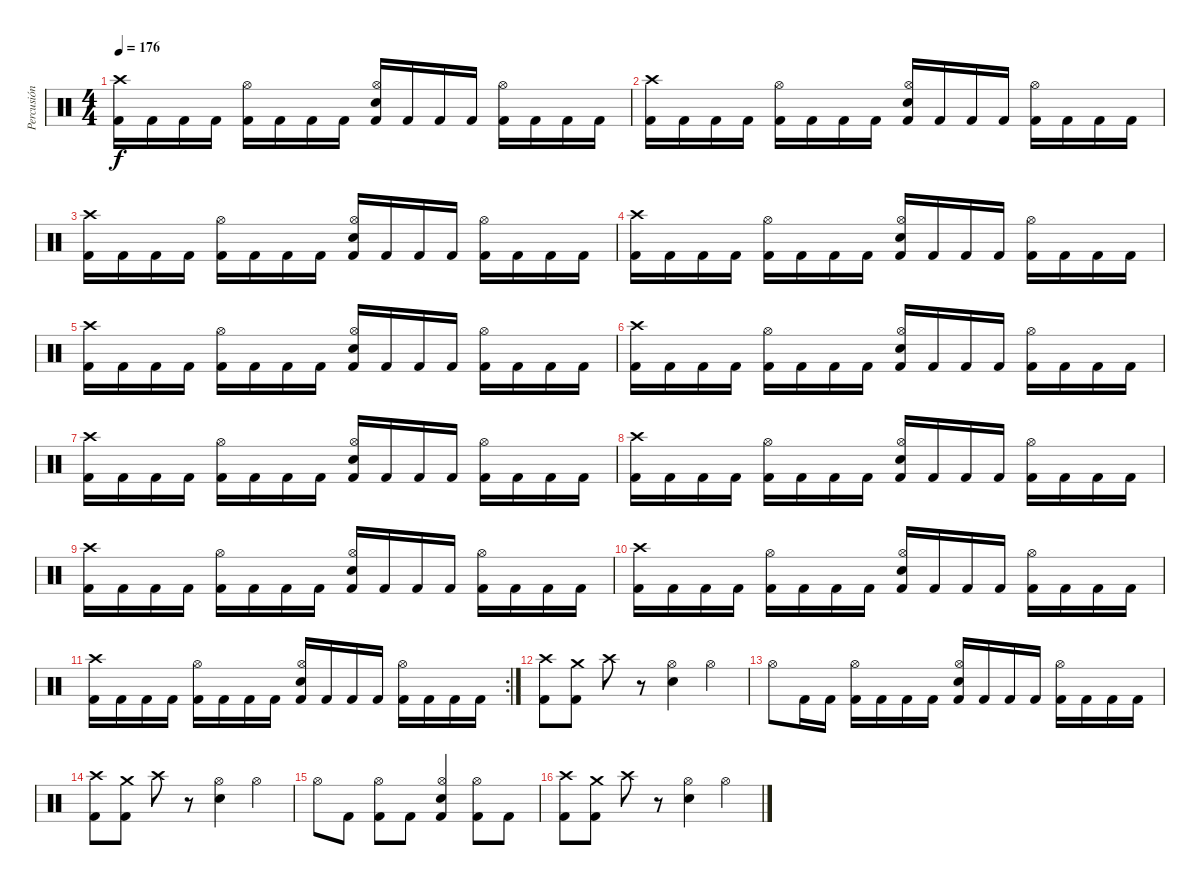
\track ("Percusión" "Percusión") {instrument percussion}
\staff {score}
\articulation defaults
\ts (4 4)
\tempo 176
\clef neutral
\ks c
("Crash high (hit)" "Kick (hit) 2").16{dy f} "Kick (hit) 2".16 "Kick (hit) 2".16 "Kick (hit) 2".16 ("Hi-Hat (open)" "Kick (hit) 2").16 "Kick (hit) 2".16 "Kick (hit) 2".16 "Kick (hit) 2".16 ("Hi-Hat (open)" "Electric Snare (hit)" "Kick (hit) 2").16 "Kick (hit) 2".16 "Kick (hit) 2".16 "Kick (hit) 2".16 ("Hi-Hat (open)" "Kick (hit) 2").16 "Kick (hit) 2".16 "Kick (hit) 2".16 "Kick (hit) 2".16 |
("Crash high (hit)" "Kick (hit) 2").16 "Kick (hit) 2".16 "Kick (hit) 2".16 "Kick (hit) 2".16 ("Hi-Hat (open)" "Kick (hit) 2").16 "Kick (hit) 2".16 "Kick (hit) 2".16 "Kick (hit) 2".16 ("Hi-Hat (open)" "Electric Snare (hit)" "Kick (hit) 2").16 "Kick (hit) 2".16 "Kick (hit) 2".16 "Kick (hit) 2".16 ("Hi-Hat (open)" "Kick (hit) 2").16 "Kick (hit) 2".16 "Kick (hit) 2".16 "Kick (hit) 2".16 |
("Crash high (hit)" "Kick (hit) 2").16 "Kick (hit) 2".16 "Kick (hit) 2".16 "Kick (hit) 2".16 ("Hi-Hat (open)" "Kick (hit) 2").16 "Kick (hit) 2".16 "Kick (hit) 2".16 "Kick (hit) 2".16 ("Hi-Hat (open)" "Electric Snare (hit)" "Kick (hit) 2").16 "Kick (hit) 2".16 "Kick (hit) 2".16 "Kick (hit) 2".16 ("Hi-Hat (open)" "Kick (hit) 2").16 "Kick (hit) 2".16 "Kick (hit) 2".16 "Kick (hit) 2".16 |
("Crash high (hit)" "Kick (hit) 2").16 "Kick (hit) 2".16 "Kick (hit) 2".16 "Kick (hit) 2".16 ("Hi-Hat (open)" "Kick (hit) 2").16 "Kick (hit) 2".16 "Kick (hit) 2".16 "Kick (hit) 2".16 ("Hi-Hat (open)" "Electric Snare (hit)" "Kick (hit) 2").16 "Kick (hit) 2".16 "Kick (hit) 2".16 "Kick (hit) 2".16 ("Hi-Hat (open)" "Kick (hit) 2").16 "Kick (hit) 2".16 "Kick (hit) 2".16 "Kick (hit) 2".16 |
("Crash high (hit)" "Kick (hit) 2").16 "Kick (hit) 2".16 "Kick (hit) 2".16 "Kick (hit) 2".16 ("Hi-Hat (open)" "Kick (hit) 2").16 "Kick (hit) 2".16 "Kick (hit) 2".16 "Kick (hit) 2".16 ("Hi-Hat (open)" "Electric Snare (hit)" "Kick (hit) 2").16 "Kick (hit) 2".16 "Kick (hit) 2".16 "Kick (hit) 2".16 ("Hi-Hat (open)" "Kick (hit) 2").16 "Kick (hit) 2".16 "Kick (hit) 2".16 "Kick (hit) 2".16 |
("Crash high (hit)" "Kick (hit) 2").16 "Kick (hit) 2".16 "Kick (hit) 2".16 "Kick (hit) 2".16 ("Hi-Hat (open)" "Kick (hit) 2").16 "Kick (hit) 2".16 "Kick (hit) 2".16 "Kick (hit) 2".16 ("Hi-Hat (open)" "Electric Snare (hit)" "Kick (hit) 2").16 "Kick (hit) 2".16 "Kick (hit) 2".16 "Kick (hit) 2".16 ("Hi-Hat (open)" "Kick (hit) 2").16 "Kick (hit) 2".16 "Kick (hit) 2".16 "Kick (hit) 2".16 |
("Crash high (hit)" "Kick (hit) 2").16 "Kick (hit) 2".16 "Kick (hit) 2".16 "Kick (hit) 2".16 ("Hi-Hat (open)" "Kick (hit) 2").16 "Kick (hit) 2".16 "Kick (hit) 2".16 "Kick (hit) 2".16 ("Hi-Hat (open)" "Electric Snare (hit)" "Kick (hit) 2").16 "Kick (hit) 2".16 "Kick (hit) 2".16 "Kick (hit) 2".16 ("Hi-Hat (open)" "Kick (hit) 2").16 "Kick (hit) 2".16 "Kick (hit) 2".16 "Kick (hit) 2".16 |
("Crash high (hit)" "Kick (hit) 2").16 "Kick (hit) 2".16 "Kick (hit) 2".16 "Kick (hit) 2".16 ("Hi-Hat (open)" "Kick (hit) 2").16 "Kick (hit) 2".16 "Kick (hit) 2".16 "Kick (hit) 2".16 ("Hi-Hat (open)" "Electric Snare (hit)" "Kick (hit) 2").16 "Kick (hit) 2".16 "Kick (hit) 2".16 "Kick (hit) 2".16 ("Hi-Hat (open)" "Kick (hit) 2").16 "Kick (hit) 2".16 "Kick (hit) 2".16 "Kick (hit) 2".16 |
("Crash high (hit)" "Kick (hit) 2").16 "Kick (hit) 2".16 "Kick (hit) 2".16 "Kick (hit) 2".16 ("Hi-Hat (open)" "Kick (hit) 2").16 "Kick (hit) 2".16 "Kick (hit) 2".16 "Kick (hit) 2".16 ("Hi-Hat (open)" "Electric Snare (hit)" "Kick (hit) 2").16 "Kick (hit) 2".16 "Kick (hit) 2".16 "Kick (hit) 2".16 ("Hi-Hat (open)" "Kick (hit) 2").16 "Kick (hit) 2".16 "Kick (hit) 2".16 "Kick (hit) 2".16 |
("Crash high (hit)" "Kick (hit) 2").16 "Kick (hit) 2".16 "Kick (hit) 2".16 "Kick (hit) 2".16 ("Hi-Hat (open)" "Kick (hit) 2").16 "Kick (hit) 2".16 "Kick (hit) 2".16 "Kick (hit) 2".16 ("Hi-Hat (open)" "Electric Snare (hit)" "Kick (hit) 2").16 "Kick (hit) 2".16 "Kick (hit) 2".16 "Kick (hit) 2".16 ("Hi-Hat (open)" "Kick (hit) 2").16 "Kick (hit) 2".16 "Kick (hit) 2".16 "Kick (hit) 2".16 |
\rc 2
("Crash high (hit)" "Kick (hit) 2").16 "Kick (hit) 2".16 "Kick (hit) 2".16 "Kick (hit) 2".16 ("Hi-Hat (open)" "Kick (hit) 2").16 "Kick (hit) 2".16 "Kick (hit) 2".16 "Kick (hit) 2".16 ("Hi-Hat (open)" "Electric Snare (hit)" "Kick (hit) 2").16 "Kick (hit) 2".16 "Kick (hit) 2".16 "Kick (hit) 2".16 ("Hi-Hat (open)" "Kick (hit) 2").16 "Kick (hit) 2".16 "Kick (hit) 2".16 "Kick (hit) 2".16 |
("Crash high (hit)" "Kick (hit) 2").8 ("Crash medium (hit)" "Kick (hit) 2").8 "Crash high (hit)".8 r.8 ("Hi-Hat (open)" "Electric Snare (hit)").4 "Hi-Hat (open)".4 |
"Hi-Hat (open)".8 "Kick (hit) 2".16 "Kick (hit) 2".16 ("Hi-Hat (open)" "Kick (hit) 2").16 "Kick (hit) 2".16 "Kick (hit) 2".16 "Kick (hit) 2".16 ("Hi-Hat (open)" "Electric Snare (hit)" "Kick (hit) 2").16 "Kick (hit) 2".16 "Kick (hit) 2".16 "Kick (hit) 2".16 ("Hi-Hat (open)" "Kick (hit) 2").16 "Kick (hit) 2".16 "Kick (hit) 2".16 "Kick (hit) 2".16 |
("Crash high (hit)" "Kick (hit) 2").8 ("Crash medium (hit)" "Kick (hit) 2").8 "Crash high (hit)".8 r.8 ("Hi-Hat (open)" "Electric Snare (hit)").4 "Hi-Hat (open)".4 |
"Hi-Hat (open)".8 "Kick (hit) 2".8 ("Hi-Hat (open)" "Kick (hit) 2").8 "Kick (hit) 2".8 ("Hi-Hat (open)" "Electric Snare (hit)" "Kick (hit) 2").4 ("Hi-Hat (open)" "Kick (hit) 2").8 "Kick (hit) 2".8 |
("Crash high (hit)" "Kick (hit) 2").8 ("Crash medium (hit)" "Kick (hit) 2").8 "Crash high (hit)".8 r.8 ("Hi-Hat (open)" "Electric Snare (hit)").4 "Hi-Hat (open)".4
